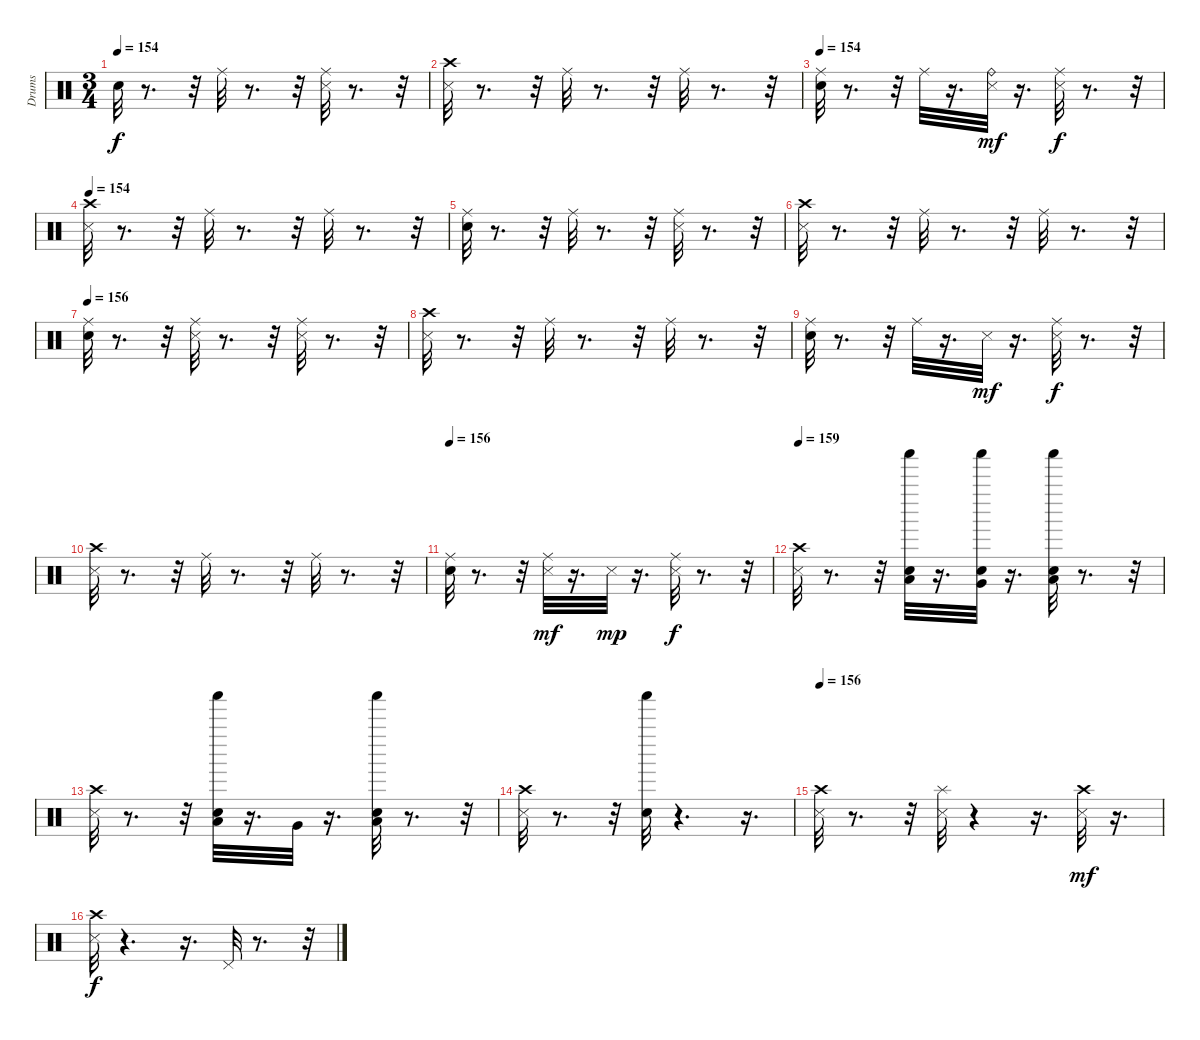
\track ("Drums" "Drums") {instrument percussion}
\staff {score}
\articulation defaults
\ts (3 4)
\tempo 154
\clef neutral
\ks c "Snare (hit) 2".32{dy f}
r.8{d} r.32 "Ride (middle)".32 r.8{d} r.32 ("Ride (middle)" "Metronome (hit)").32 r.8{d} r.32 |
("Crash high (hit)" "Metronome (hit)").32 r.8{d} r.32 "Ride (middle)".32 r.8{d} r.32 "Ride (middle)".32 r.8{d} r.32 |
\tempo 154
("Snare (hit) 2" "Ride (middle)").32 r.8{d} r.32 "Ride (middle)".32 r.16{d} ("Ride (bell)" "Metronome (hit)").32{dy mf} r.16{d} ("Ride (middle)" "Metronome (hit)").32{dy f} r.8{d} r.32 |
\tempo 154
("Crash high (hit)" "Metronome (hit)").32 r.8{d} r.32 "Ride (middle)".32 r.8{d} r.32 "Ride (middle)".32 r.8{d} r.32 |
("Ride (middle)" "Snare (hit) 2").32 r.8{d} r.32 "Ride (middle)".32 r.8{d} r.32 ("Ride (middle)" "Metronome (hit)").32 r.8{d} r.32 |
("Crash high (hit)" "Metronome (hit)").32 r.8{d} r.32 "Ride (middle)".32 r.8{d} r.32 "Ride (middle)".32 r.8{d} r.32 |
\tempo 156
("Ride (middle)" "Snare (hit) 2").32 r.8{d} r.32 ("Ride (middle)" "Metronome (hit)").32 r.8{d} r.32 ("Ride (middle)" "Metronome (hit)").32 r.8{d} r.32 |
("Crash high (hit)" "Metronome (hit)").32 r.8{d} r.32 "Ride (middle)".32 r.8{d} r.32 "Ride (middle)".32 r.8{d} r.32 |
("Snare (hit) 2" "Ride (middle)").32 r.8{d} r.32 "Ride (middle)".32 r.16{d} "Metronome (hit)".32{dy mf} r.16{d} ("Ride (middle)" "Metronome (hit)").32{dy f} r.8{d} r.32 |
("Crash high (hit)" "Metronome (hit)").32 r.8{d} r.32 "Ride (middle)".32 r.8{d} r.32 "Ride (middle)".32 r.8{d} r.32 |
\tempo 156
("Snare (hit) 2" "Ride (middle)").32 r.8{d} r.32 ("Ride (middle)" "Metronome (hit)").32{dy mf} r.16{d} "Metronome (hit)".32{dy mp} r.16{d} ("Ride (middle)" "Metronome (hit)").32{dy f} r.8{d} r.32 |
\tempo 159
("Metronome (hit)" "Crash high (hit)").32 r.8{d} r.32 ("Shaker (hit)" "Low Tom (hit)" "Hand Clap (hit)").32 r.16{d} ("Very Low Tom (hit)" "Shaker (hit)" "Hand Clap (hit)").32 r.16{d} ("Shaker (hit)" "Hand Clap (hit)" "Low Floor Tom (hit)").32 r.8{d} r.32 |
("Crash high (hit)" "Metronome (hit)").32 r.8{d} r.32 ("Hand Clap (hit)" "Shaker (hit)" "Low Tom (hit)").32 r.16{d} "Very Low Tom (hit)".32 r.16{d} ("Low Tom (hit)" "Hand Clap (hit)" "Shaker (hit)").32 r.8{d} r.32 |
("Metronome (hit)" "Crash high (hit)").32 r.8{d} r.32 ("Hand Clap (hit)" "Shaker (hit)").32 r.4{d} r.16{d} |
\tempo 156
("Metronome (hit)" "Crash high (hit)").32 r.8{d} r.32 ("Splash (hit)" "Metronome (hit)").32 r.4 r.16{d} ("Metronome (hit)" "Crash high (hit)").32{dy mf} r.16{d} |
("Metronome (hit)" "Crash high (hit)").32{dy f} r.4{d} r.16{d} "Pedal Hi-Hat (hit)".32 r.8{d} r.32
